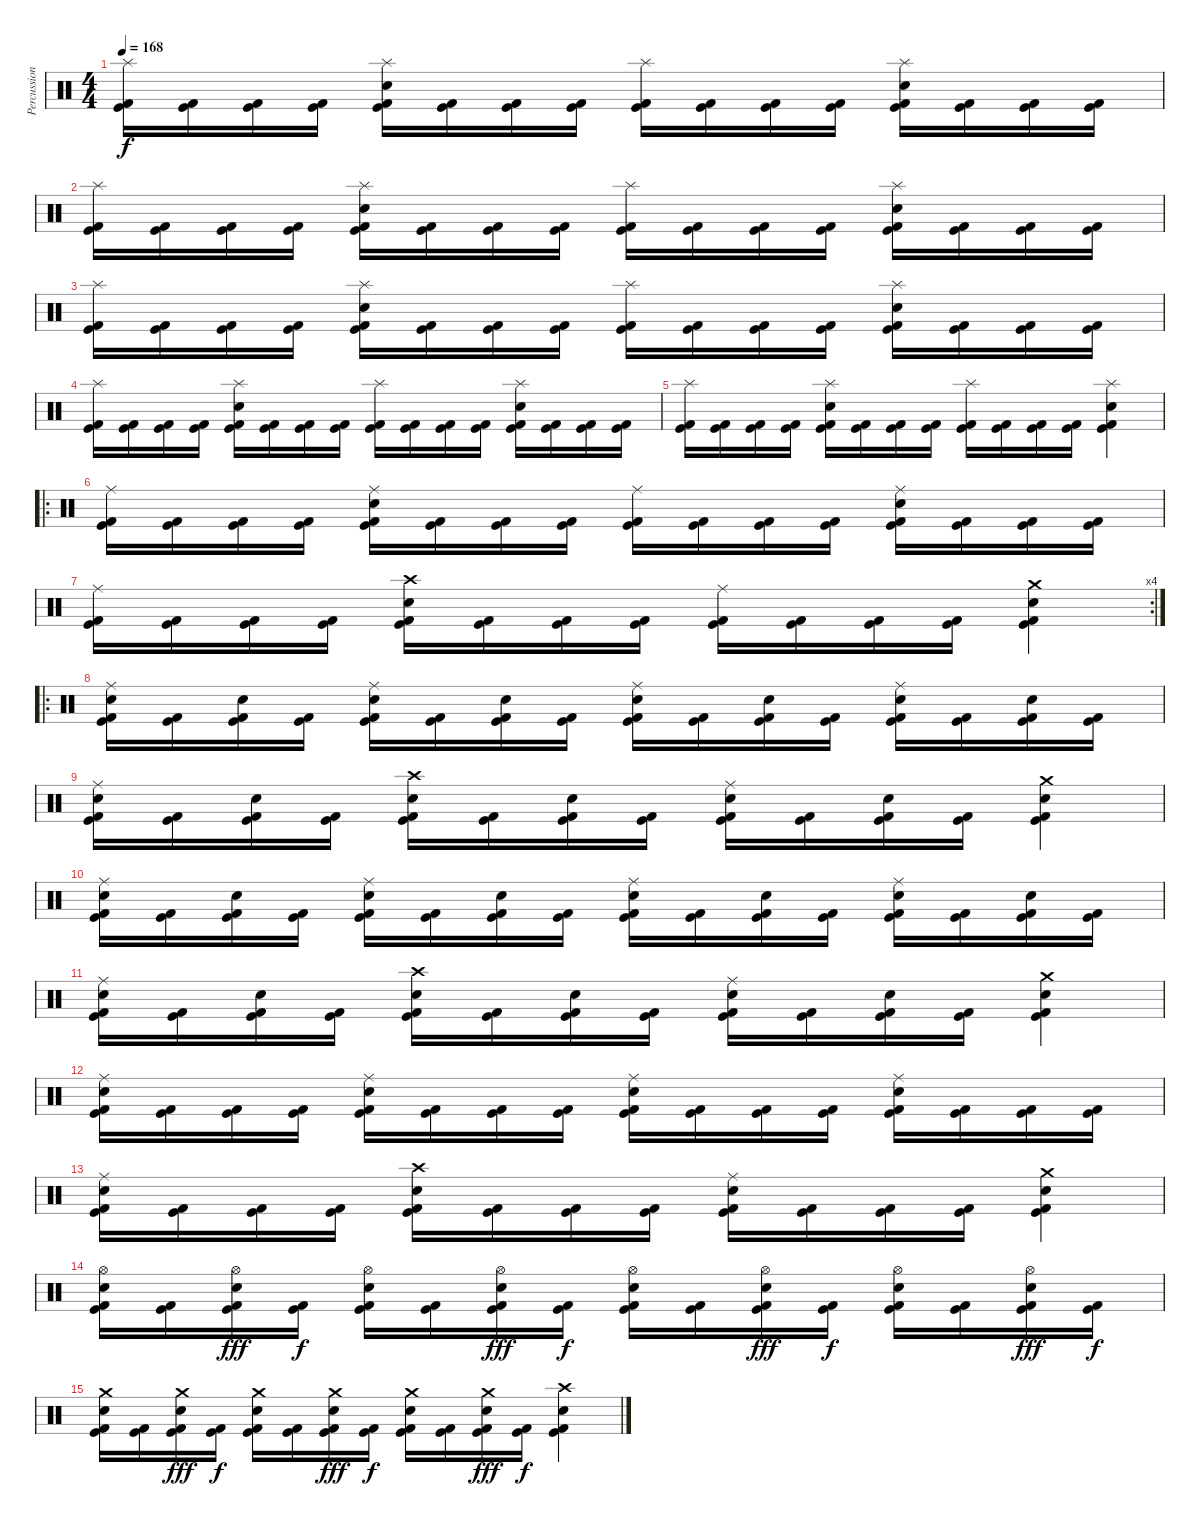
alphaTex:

\track ("Percussion" "Percussion") {instrument percussion}
\staff {score}
\articulation defaults
\ts (4 4)
\tempo 168
\clef neutral
\ks c
("Splash (hit)" "Kick (hit) 2" "Kick (hit)").16{dy f} ("Kick (hit) 2" "Kick (hit)").16 ("Kick (hit) 2" "Kick (hit)").16 ("Kick (hit) 2" "Kick (hit)").16 ("Splash (hit)" "Electric Snare (hit)" "Kick (hit) 2" "Kick (hit)").16 ("Kick (hit) 2" "Kick (hit)").16 ("Kick (hit) 2" "Kick (hit)").16 ("Kick (hit) 2" "Kick (hit)").16 ("Splash (hit)" "Kick (hit) 2" "Kick (hit)").16 ("Kick (hit) 2" "Kick (hit)").16 ("Kick (hit) 2" "Kick (hit)").16 ("Kick (hit) 2" "Kick (hit)").16 ("Splash (hit)" "Electric Snare (hit)" "Kick (hit) 2" "Kick (hit)").16 ("Kick (hit) 2" "Kick (hit)").16 ("Kick (hit) 2" "Kick (hit)").16 ("Kick (hit) 2" "Kick (hit)").16 |
("Splash (hit)" "Kick (hit) 2" "Kick (hit)").16 ("Kick (hit) 2" "Kick (hit)").16 ("Kick (hit) 2" "Kick (hit)").16 ("Kick (hit) 2" "Kick (hit)").16 ("Splash (hit)" "Electric Snare (hit)" "Kick (hit) 2" "Kick (hit)").16 ("Kick (hit) 2" "Kick (hit)").16 ("Kick (hit) 2" "Kick (hit)").16 ("Kick (hit) 2" "Kick (hit)").16 ("Splash (hit)" "Kick (hit) 2" "Kick (hit)").16 ("Kick (hit) 2" "Kick (hit)").16 ("Kick (hit) 2" "Kick (hit)").16 ("Kick (hit) 2" "Kick (hit)").16 ("Splash (hit)" "Electric Snare (hit)" "Kick (hit) 2" "Kick (hit)").16 ("Kick (hit) 2" "Kick (hit)").16 ("Kick (hit) 2" "Kick (hit)").16 ("Kick (hit) 2" "Kick (hit)").16 |
("Splash (hit)" "Kick (hit) 2" "Kick (hit)").16 ("Kick (hit) 2" "Kick (hit)").16 ("Kick (hit) 2" "Kick (hit)").16 ("Kick (hit) 2" "Kick (hit)").16 ("Splash (hit)" "Electric Snare (hit)" "Kick (hit) 2" "Kick (hit)").16 ("Kick (hit) 2" "Kick (hit)").16 ("Kick (hit) 2" "Kick (hit)").16 ("Kick (hit) 2" "Kick (hit)").16 ("Splash (hit)" "Kick (hit) 2" "Kick (hit)").16 ("Kick (hit) 2" "Kick (hit)").16 ("Kick (hit) 2" "Kick (hit)").16 ("Kick (hit) 2" "Kick (hit)").16 ("Splash (hit)" "Electric Snare (hit)" "Kick (hit) 2" "Kick (hit)").16 ("Kick (hit) 2" "Kick (hit)").16 ("Kick (hit) 2" "Kick (hit)").16 ("Kick (hit) 2" "Kick (hit)").16 |
("Splash (hit)" "Kick (hit) 2" "Kick (hit)").16 ("Kick (hit) 2" "Kick (hit)").16 ("Kick (hit) 2" "Kick (hit)").16 ("Kick (hit) 2" "Kick (hit)").16 ("Splash (hit)" "Electric Snare (hit)" "Kick (hit) 2" "Kick (hit)").16 ("Kick (hit) 2" "Kick (hit)").16 ("Kick (hit) 2" "Kick (hit)").16 ("Kick (hit) 2" "Kick (hit)").16 ("Splash (hit)" "Kick (hit) 2" "Kick (hit)").16 ("Kick (hit) 2" "Kick (hit)").16 ("Kick (hit) 2" "Kick (hit)").16 ("Kick (hit) 2" "Kick (hit)").16 ("Splash (hit)" "Electric Snare (hit)" "Kick (hit) 2" "Kick (hit)").16 ("Kick (hit) 2" "Kick (hit)").16 ("Kick (hit) 2" "Kick (hit)").16 ("Kick (hit) 2" "Kick (hit)").16 |
("Splash (hit)" "Kick (hit) 2" "Kick (hit)").16 ("Kick (hit) 2" "Kick (hit)").16 ("Kick (hit) 2" "Kick (hit)").16 ("Kick (hit) 2" "Kick (hit)").16 ("Splash (hit)" "Electric Snare (hit)" "Kick (hit) 2" "Kick (hit)").16 ("Kick (hit) 2" "Kick (hit)").16 ("Kick (hit) 2" "Kick (hit)").16 ("Kick (hit) 2" "Kick (hit)").16 ("Splash (hit)" "Kick (hit) 2" "Kick (hit)").16 ("Kick (hit) 2" "Kick (hit)").16 ("Kick (hit) 2" "Kick (hit)").16 ("Kick (hit) 2" "Kick (hit)").16 ("Splash (hit)" "Electric Snare (hit)" "Kick (hit) 2" "Kick (hit)").4 |
\ro
("Ride (middle)" "Kick (hit) 2" "Kick (hit)").16 ("Kick (hit) 2" "Kick (hit)").16 ("Kick (hit) 2" "Kick (hit)").16 ("Kick (hit) 2" "Kick (hit)").16 ("Ride (middle)" "Electric Snare (hit)" "Kick (hit) 2" "Kick (hit)").16 ("Kick (hit) 2" "Kick (hit)").16 ("Kick (hit) 2" "Kick (hit)").16 ("Kick (hit) 2" "Kick (hit)").16 ("Ride (middle)" "Kick (hit) 2" "Kick (hit)").16 ("Kick (hit) 2" "Kick (hit)").16 ("Kick (hit) 2" "Kick (hit)").16 ("Kick (hit) 2" "Kick (hit)").16 ("Ride (middle)" "Electric Snare (hit)" "Kick (hit) 2" "Kick (hit)").16 ("Kick (hit) 2" "Kick (hit)").16 ("Kick (hit) 2" "Kick (hit)").16 ("Kick (hit) 2" "Kick (hit)").16 |
\rc 4
("Ride (middle)" "Kick (hit) 2" "Kick (hit)").16 ("Kick (hit) 2" "Kick (hit)").16 ("Kick (hit) 2" "Kick (hit)").16 ("Kick (hit) 2" "Kick (hit)").16 ("Crash high (hit)" "Electric Snare (hit)" "Kick (hit) 2" "Kick (hit)").16 ("Kick (hit) 2" "Kick (hit)").16 ("Kick (hit) 2" "Kick (hit)").16 ("Kick (hit) 2" "Kick (hit)").16 ("Ride (middle)" "Kick (hit) 2" "Kick (hit)").16 ("Kick (hit) 2" "Kick (hit)").16 ("Kick (hit) 2" "Kick (hit)").16 ("Kick (hit) 2" "Kick (hit)").16 ("Crash medium (hit)" "Electric Snare (hit)" "Kick (hit) 2" "Kick (hit)").4 |
\ro
("Ride (middle)" "Electric Snare (hit)" "Kick (hit) 2" "Kick (hit)").16 ("Kick (hit) 2" "Kick (hit)").16 ("Electric Snare (hit)" "Kick (hit) 2" "Kick (hit)").16 ("Kick (hit) 2" "Kick (hit)").16 ("Ride (middle)" "Electric Snare (hit)" "Kick (hit) 2" "Kick (hit)").16 ("Kick (hit) 2" "Kick (hit)").16 ("Electric Snare (hit)" "Kick (hit) 2" "Kick (hit)").16 ("Kick (hit) 2" "Kick (hit)").16 ("Ride (middle)" "Electric Snare (hit)" "Kick (hit) 2" "Kick (hit)").16 ("Kick (hit) 2" "Kick (hit)").16 ("Electric Snare (hit)" "Kick (hit) 2" "Kick (hit)").16 ("Kick (hit) 2" "Kick (hit)").16 ("Ride (middle)" "Electric Snare (hit)" "Kick (hit) 2" "Kick (hit)").16 ("Kick (hit) 2" "Kick (hit)").16 ("Electric Snare (hit)" "Kick (hit) 2" "Kick (hit)").16 ("Kick (hit) 2" "Kick (hit)").16 |
("Ride (middle)" "Electric Snare (hit)" "Kick (hit) 2" "Kick (hit)").16 ("Kick (hit) 2" "Kick (hit)").16 ("Electric Snare (hit)" "Kick (hit) 2" "Kick (hit)").16 ("Kick (hit) 2" "Kick (hit)").16 ("Crash high (hit)" "Electric Snare (hit)" "Kick (hit) 2" "Kick (hit)").16 ("Kick (hit) 2" "Kick (hit)").16 ("Electric Snare (hit)" "Kick (hit) 2" "Kick (hit)").16 ("Kick (hit) 2" "Kick (hit)").16 ("Ride (middle)" "Electric Snare (hit)" "Kick (hit) 2" "Kick (hit)").16 ("Kick (hit) 2" "Kick (hit)").16 ("Electric Snare (hit)" "Kick (hit) 2" "Kick (hit)").16 ("Kick (hit) 2" "Kick (hit)").16 ("Crash medium (hit)" "Electric Snare (hit)" "Kick (hit) 2" "Kick (hit)").4 |
("Ride (middle)" "Electric Snare (hit)" "Kick (hit) 2" "Kick (hit)").16 ("Kick (hit) 2" "Kick (hit)").16 ("Electric Snare (hit)" "Kick (hit) 2" "Kick (hit)").16 ("Kick (hit) 2" "Kick (hit)").16 ("Ride (middle)" "Electric Snare (hit)" "Kick (hit) 2" "Kick (hit)").16 ("Kick (hit) 2" "Kick (hit)").16 ("Electric Snare (hit)" "Kick (hit) 2" "Kick (hit)").16 ("Kick (hit) 2" "Kick (hit)").16 ("Ride (middle)" "Electric Snare (hit)" "Kick (hit) 2" "Kick (hit)").16 ("Kick (hit) 2" "Kick (hit)").16 ("Electric Snare (hit)" "Kick (hit) 2" "Kick (hit)").16 ("Kick (hit) 2" "Kick (hit)").16 ("Ride (middle)" "Electric Snare (hit)" "Kick (hit) 2" "Kick (hit)").16 ("Kick (hit) 2" "Kick (hit)").16 ("Electric Snare (hit)" "Kick (hit) 2" "Kick (hit)").16 ("Kick (hit) 2" "Kick (hit)").16 |
("Ride (middle)" "Electric Snare (hit)" "Kick (hit) 2" "Kick (hit)").16 ("Kick (hit) 2" "Kick (hit)").16 ("Electric Snare (hit)" "Kick (hit) 2" "Kick (hit)").16 ("Kick (hit) 2" "Kick (hit)").16 ("Crash high (hit)" "Electric Snare (hit)" "Kick (hit) 2" "Kick (hit)").16 ("Kick (hit) 2" "Kick (hit)").16 ("Electric Snare (hit)" "Kick (hit) 2" "Kick (hit)").16 ("Kick (hit) 2" "Kick (hit)").16 ("Ride (middle)" "Electric Snare (hit)" "Kick (hit) 2" "Kick (hit)").16 ("Kick (hit) 2" "Kick (hit)").16 ("Electric Snare (hit)" "Kick (hit) 2" "Kick (hit)").16 ("Kick (hit) 2" "Kick (hit)").16 ("Crash medium (hit)" "Electric Snare (hit)" "Kick (hit) 2" "Kick (hit)").4 |
("Ride (middle)" "Electric Snare (hit)" "Kick (hit) 2" "Kick (hit)").16 ("Kick (hit) 2" "Kick (hit)").16 ("Kick (hit) 2" "Kick (hit)").16 ("Kick (hit) 2" "Kick (hit)").16 ("Ride (middle)" "Electric Snare (hit)" "Kick (hit) 2" "Kick (hit)").16 ("Kick (hit) 2" "Kick (hit)").16 ("Kick (hit) 2" "Kick (hit)").16 ("Kick (hit) 2" "Kick (hit)").16 ("Ride (middle)" "Electric Snare (hit)" "Kick (hit) 2" "Kick (hit)").16 ("Kick (hit) 2" "Kick (hit)").16 ("Kick (hit) 2" "Kick (hit)").16 ("Kick (hit) 2" "Kick (hit)").16 ("Ride (middle)" "Electric Snare (hit)" "Kick (hit) 2" "Kick (hit)").16 ("Kick (hit) 2" "Kick (hit)").16 ("Kick (hit) 2" "Kick (hit)").16 ("Kick (hit) 2" "Kick (hit)").16 |
("Ride (middle)" "Electric Snare (hit)" "Kick (hit) 2" "Kick (hit)").16 ("Kick (hit) 2" "Kick (hit)").16 ("Kick (hit) 2" "Kick (hit)").16 ("Kick (hit) 2" "Kick (hit)").16 ("Crash high (hit)" "Electric Snare (hit)" "Kick (hit) 2" "Kick (hit)").16 ("Kick (hit) 2" "Kick (hit)").16 ("Kick (hit) 2" "Kick (hit)").16 ("Kick (hit) 2" "Kick (hit)").16 ("Ride (middle)" "Electric Snare (hit)" "Kick (hit) 2" "Kick (hit)").16 ("Kick (hit) 2" "Kick (hit)").16 ("Kick (hit) 2" "Kick (hit)").16 ("Kick (hit) 2" "Kick (hit)").16 ("Crash medium (hit)" "Electric Snare (hit)" "Kick (hit) 2" "Kick (hit)").4 |
("Hi-Hat (open)" "Electric Snare (hit)" "Kick (hit) 2" "Kick (hit)").16 ("Kick (hit) 2" "Kick (hit)").16 ("Hi-Hat (open)" "Electric Snare (hit)" "Kick (hit) 2" "Kick (hit)").16{dy fff} ("Kick (hit) 2" "Kick (hit)").16{dy f} ("Hi-Hat (open)" "Electric Snare (hit)" "Kick (hit) 2" "Kick (hit)").16 ("Kick (hit) 2" "Kick (hit)").16 ("Hi-Hat (open)" "Electric Snare (hit)" "Kick (hit) 2" "Kick (hit)").16{dy fff} ("Kick (hit) 2" "Kick (hit)").16{dy f} ("Hi-Hat (open)" "Electric Snare (hit)" "Kick (hit) 2" "Kick (hit)").16 ("Kick (hit) 2" "Kick (hit)").16 ("Hi-Hat (open)" "Electric Snare (hit)" "Kick (hit) 2" "Kick (hit)").16{dy fff} ("Kick (hit) 2" "Kick (hit)").16{dy f} ("Hi-Hat (open)" "Electric Snare (hit)" "Kick (hit) 2" "Kick (hit)").16 ("Kick (hit) 2" "Kick (hit)").16 ("Hi-Hat (open)" "Electric Snare (hit)" "Kick (hit) 2" "Kick (hit)").16{dy fff} ("Kick (hit) 2" "Kick (hit)").16{dy f} |
("Crash medium (hit)" "Electric Snare (hit)" "Kick (hit) 2" "Kick (hit)").16 ("Kick (hit) 2" "Kick (hit)").16 ("Crash medium (hit)" "Electric Snare (hit)" "Kick (hit) 2" "Kick (hit)").16{dy fff} ("Kick (hit) 2" "Kick (hit)").16{dy f} ("Crash medium (hit)" "Electric Snare (hit)" "Kick (hit) 2" "Kick (hit)").16 ("Kick (hit) 2" "Kick (hit)").16 ("Crash medium (hit)" "Electric Snare (hit)" "Kick (hit) 2" "Kick (hit)").16{dy fff} ("Kick (hit) 2" "Kick (hit)").16{dy f} ("Crash medium (hit)" "Electric Snare (hit)" "Kick (hit) 2" "Kick (hit)").16 ("Kick (hit) 2" "Kick (hit)").16 ("Crash medium (hit)" "Electric Snare (hit)" "Kick (hit) 2" "Kick (hit)").16{dy fff} ("Kick (hit) 2" "Kick (hit)").16{dy f} ("Crash high (hit)" "Electric Snare (hit)" "Kick (hit) 2" "Kick (hit)").4
